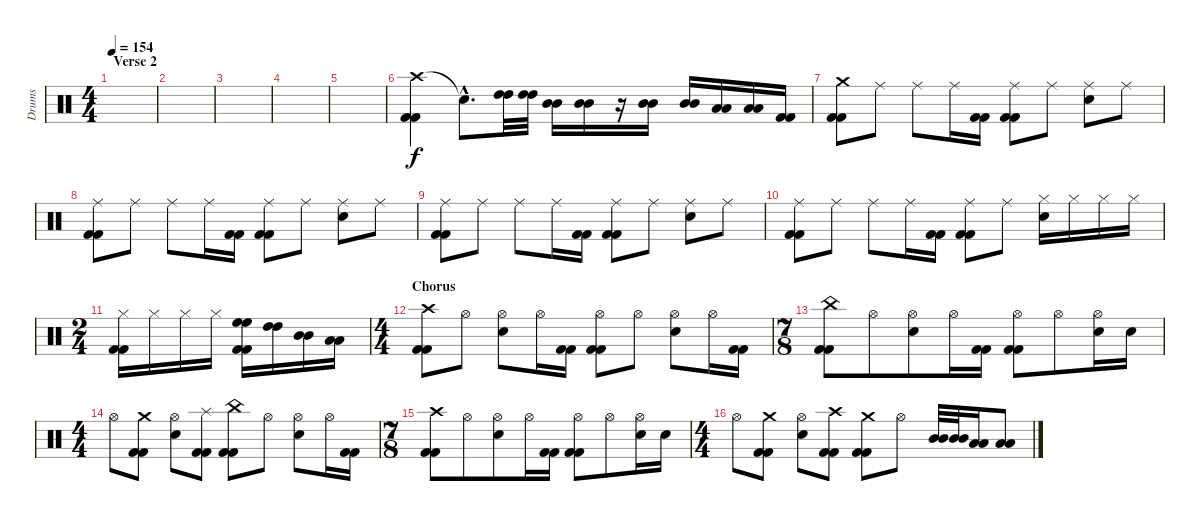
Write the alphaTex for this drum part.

\track ("Drums" "Drums") {instrument percussion}
\staff {score}
\articulation defaults
\ts (4 4)
\section ("" "Verse 2")
\tempo 154
\clef neutral
\ks c
|
|
|
|
|
("Crash high (hit)" "Kick (hit) 2" "Kick (hit) 2").4{volume 10} "Snare (hit)"{hac t}.8{d} ("High Tom (hit)" "High Tom (hit)").32 ("High Tom (hit)" "High Tom (hit)").32 ("Mid Tom (hit)" "Mid Tom (hit)").16 ("Mid Tom (hit)" "Mid Tom (hit)").16 r.16 ("Mid Tom (hit)" "Mid Tom (hit)").16 ("Mid Tom (hit)" "Mid Tom (hit)").16 ("Low Tom (hit)" "Low Tom (hit)").16 ("Low Tom (hit)" "Low Tom (hit)").16 ("Kick (hit) 2" "Kick (hit) 2").16 |
("Crash medium (hit)" "Kick (hit) 2" "Kick (hit) 2").8 "Ride (middle)".8 "Ride (middle)".8 "Ride (middle)".16 ("Kick (hit) 2" "Kick (hit) 2").16 ("Ride (middle)" "Kick (hit) 2" "Kick (hit) 2").8 "Ride (middle)".8 ("Ride (middle)" "Snare (hit) 2").8 "Ride (middle)".8 |
("Ride (middle)" "Kick (hit) 2" "Kick (hit) 2").8 "Ride (middle)".8 "Ride (middle)".8 "Ride (middle)".16 ("Kick (hit) 2" "Kick (hit) 2").16 ("Ride (middle)" "Kick (hit) 2" "Kick (hit) 2").8 "Ride (middle)".8 ("Ride (middle)" "Snare (hit) 2").8 "Ride (middle)".8 |
("Ride (middle)" "Kick (hit) 2" "Kick (hit) 2").8 "Ride (middle)".8 "Ride (middle)".8 "Ride (middle)".16 ("Kick (hit) 2" "Kick (hit) 2").16 ("Ride (middle)" "Kick (hit) 2" "Kick (hit) 2").8 "Ride (middle)".8 ("Ride (middle)" "Snare (hit) 2").8 "Ride (middle)".8 |
("Ride (middle)" "Kick (hit) 2" "Kick (hit) 2").8 "Ride (middle)".8 "Ride (middle)".8 "Ride (middle)".16 ("Kick (hit) 2" "Kick (hit) 2").16 ("Ride (middle)" "Kick (hit) 2" "Kick (hit) 2").8 "Ride (middle)".8 ("Hi-Hat (closed)" "Snare (hit) 2").16 "Hi-Hat (closed)".16 "Hi-Hat (closed)".16 "Hi-Hat (closed)".16 |
\ts (2 4)
("Hi-Hat (closed)" "Kick (hit) 2" "Kick (hit) 2").16 "Hi-Hat (closed)".16 "Hi-Hat (closed)".16 "Hi-Hat (closed)".16 ("High Floor Tom (hit)" "High Floor Tom (hit)" "Kick (hit) 2" "Kick (hit) 2").16 ("High Tom (hit)" "High Tom (hit)").16 ("Mid Tom (hit)" "Mid Tom (hit)").16 ("Low Tom (hit)" "Low Tom (hit)").16 |
\ts (4 4)
\section ("" "Chorus")
("Crash high (hit)" "Kick (hit) 2" "Kick (hit) 2").8 "Hi-Hat (open)".8 ("Hi-Hat (open)" "Snare (hit) 2").8 "Hi-Hat (open)".16 ("Kick (hit) 2" "Kick (hit) 2").16 ("Hi-Hat (open)" "Kick (hit) 2" "Kick (hit) 2").8 "Hi-Hat (open)".8 ("Hi-Hat (open)" "Snare (hit) 2").8 "Hi-Hat (open)".16 ("Kick (hit) 2" "Kick (hit) 2").16 |
\ts (7 8)
("China (hit)" "Kick (hit) 2" "Kick (hit) 2").8 "Hi-Hat (open)".8 ("Hi-Hat (open)" "Snare (hit) 2").8 "Hi-Hat (open)".16 ("Kick (hit) 2" "Kick (hit) 2").16 ("Hi-Hat (open)" "Kick (hit) 2" "Kick (hit) 2").8 "Hi-Hat (open)".8 ("Hi-Hat (open)" "Snare (hit) 2").16 "Snare (hit) 2".16 |
\ts (4 4)
"Hi-Hat (open)".8 ("Crash medium (hit)" "Kick (hit) 2" "Kick (hit) 2").8 ("Hi-Hat (open)" "Snare (hit) 2").8 ("Splash (hit)" "Kick (hit) 2" "Kick (hit) 2").8 ("China (hit)" "Kick (hit) 2" "Kick (hit) 2").8 "Hi-Hat (open)".8 ("Hi-Hat (open)" "Snare (hit) 2").8 "Hi-Hat (open)".16 ("Kick (hit) 2" "Kick (hit) 2").16 |
\ts (7 8)
("Crash high (hit)" "Kick (hit) 2" "Kick (hit) 2").8 "Hi-Hat (open)".8 ("Hi-Hat (open)" "Snare (hit) 2").8 "Hi-Hat (open)".16 ("Kick (hit) 2" "Kick (hit) 2").16 ("Hi-Hat (open)" "Kick (hit) 2" "Kick (hit) 2").8 "Hi-Hat (open)".8 ("Hi-Hat (open)" "Snare (hit) 2").16 "Snare (hit) 2".16 |
\ts (4 4)
"Hi-Hat (open)".8 ("Crash medium (hit)" "Kick (hit) 2" "Kick (hit) 2").8 ("Hi-Hat (open)" "Snare (hit) 2").8 ("Crash high (hit)" "Kick (hit) 2" "Kick (hit) 2").8 ("Crash medium (hit)" "Kick (hit) 2" "Kick (hit) 2").8 "Hi-Hat (open)".8 ("Mid Tom (hit)" "Mid Tom (hit)").32 ("Mid Tom (hit)" "Mid Tom (hit)").32 ("Low Tom (hit)" "Low Tom (hit)").16 ("Low Tom (hit)" "Low Tom (hit)").8
